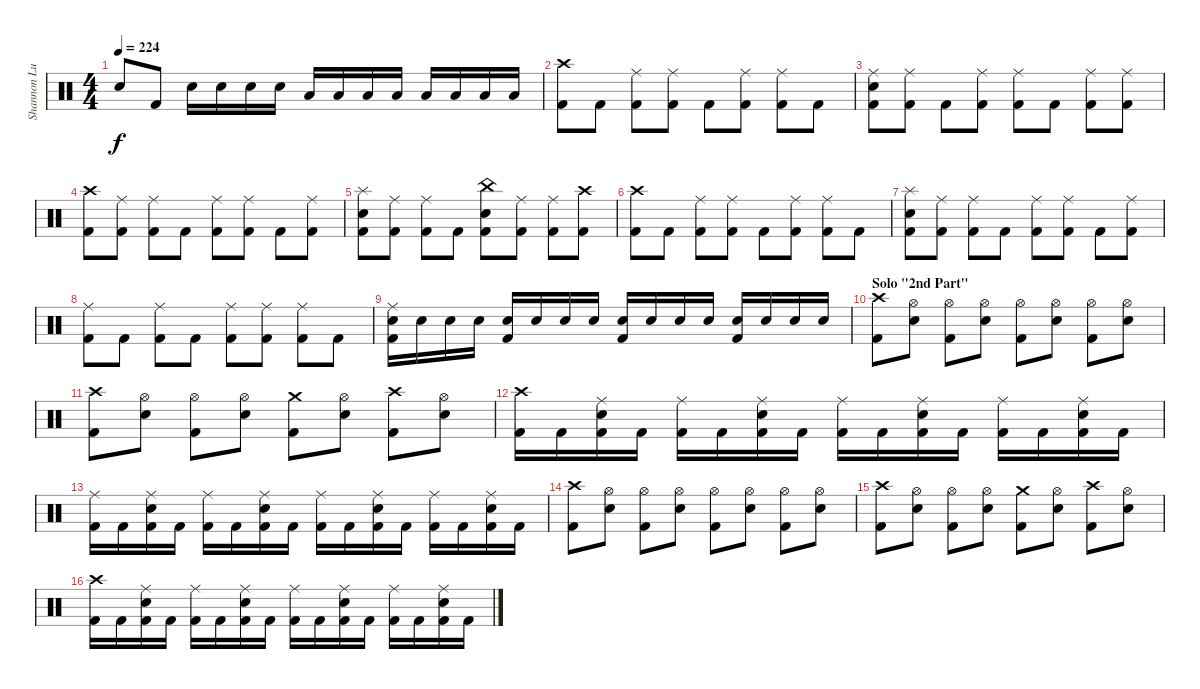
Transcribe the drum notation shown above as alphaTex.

\track ("Shannon Lucas (Drums)" "Shannon Lu") {instrument percussion}
\staff {score}
\articulation defaults
\ts (4 4)
\tempo 224
\clef neutral
\ks c "Snare (hit) 2".8{dy f} "Kick (hit) 2".8 "Snare (hit) 2".16 "Snare (hit) 2".16 "Snare (hit) 2".16 "Snare (hit) 2".16 "Low Tom (hit)".16 "Low Tom (hit)".16 "Low Tom (hit)".16 "Low Tom (hit)".16 "Low Floor Tom (hit)".16 "Low Floor Tom (hit)".16 "Low Floor Tom (hit)".16 "Low Floor Tom (hit)".16
|
("Crash high (hit)" "Kick (hit) 2").8 "Kick (hit) 2".8 ("Ride (middle)" "Kick (hit) 2").8 ("Ride (middle)" "Kick (hit) 2").8 "Kick (hit) 2".8 ("Ride (middle)" "Kick (hit) 2").8 ("Ride (middle)" "Kick (hit) 2").8 "Kick (hit) 2".8 |
("Ride (middle)" "Snare (hit) 2" "Kick (hit) 2").8 ("Ride (middle)" "Kick (hit) 2").8 "Kick (hit) 2".8 ("Ride (middle)" "Kick (hit) 2").8 ("Ride (middle)" "Kick (hit) 2").8 "Kick (hit) 2".8 ("Ride (middle)" "Kick (hit) 2").8 ("Ride (middle)" "Kick (hit) 2").8 |
("Crash high (hit)" "Kick (hit) 2").8 ("Ride (middle)" "Kick (hit) 2").8 ("Ride (middle)" "Kick (hit) 2").8 "Kick (hit) 2".8 ("Ride (middle)" "Kick (hit) 2").8 ("Ride (middle)" "Kick (hit) 2").8 "Kick (hit) 2".8 ("Ride (middle)" "Kick (hit) 2").8 |
("Splash (hit)" "Snare (hit) 2" "Kick (hit) 2").8 ("Ride (middle)" "Kick (hit) 2").8 ("Ride (middle)" "Kick (hit) 2").8 "Kick (hit) 2".8 ("China (hit)" "Snare (hit) 2" "Kick (hit) 2").8 ("Ride (middle)" "Kick (hit) 2").8 ("Ride (middle)" "Kick (hit) 2").8 ("Crash high (hit)" "Kick (hit) 2").8 |
("Crash high (hit)" "Kick (hit) 2").8 "Kick (hit) 2".8 ("Ride (middle)" "Kick (hit) 2").8 ("Ride (middle)" "Kick (hit) 2").8 "Kick (hit) 2".8 ("Ride (middle)" "Kick (hit) 2").8 ("Ride (middle)" "Kick (hit) 2").8 "Kick (hit) 2".8 |
("Splash (hit)" "Snare (hit) 2" "Kick (hit) 2").8 ("Ride (middle)" "Kick (hit) 2").8 ("Ride (middle)" "Kick (hit) 2").8 "Kick (hit) 2".8 ("Ride (middle)" "Kick (hit) 2").8 ("Ride (middle)" "Kick (hit) 2").8 "Kick (hit) 2".8 ("Ride (middle)" "Kick (hit) 2").8 |
("Ride (middle)" "Kick (hit) 2").8 "Kick (hit) 2".8 ("Ride (middle)" "Kick (hit) 2").8 "Kick (hit) 2".8 ("Ride (middle)" "Kick (hit) 2").8 ("Ride (middle)" "Kick (hit) 2").8 ("Ride (middle)" "Kick (hit) 2").8 "Kick (hit) 2".8 |
("Ride (middle)" "Kick (hit) 2" "Snare (hit) 2").16 "Snare (hit) 2".16 "Snare (hit) 2".16 "Snare (hit) 2".16 ("Kick (hit) 2" "Snare (hit) 2").16 "Snare (hit) 2".16 "Snare (hit) 2".16 "Snare (hit) 2".16 ("Kick (hit) 2" "Snare (hit) 2").16 "Snare (hit) 2".16 "Snare (hit) 2".16 "Snare (hit) 2".16 ("Kick (hit) 2" "Snare (hit) 2").16 "Snare (hit) 2".16 "Snare (hit) 2".16 "Snare (hit) 2".16 |
\section ("" "Solo \"2nd Part\"")
("Crash high (hit)" "Kick (hit) 2").8{balance 8} ("Hi-Hat (open)" "Snare (hit) 2").8 ("Hi-Hat (open)" "Kick (hit) 2").8 ("Hi-Hat (open)" "Snare (hit) 2").8 ("Hi-Hat (open)" "Kick (hit) 2").8 ("Hi-Hat (open)" "Snare (hit) 2").8 ("Hi-Hat (open)" "Kick (hit) 2").8 ("Hi-Hat (open)" "Snare (hit) 2").8 |
("Crash high (hit)" "Kick (hit) 2").8 ("Hi-Hat (open)" "Snare (hit) 2").8 ("Hi-Hat (open)" "Kick (hit) 2").8 ("Hi-Hat (open)" "Snare (hit) 2").8 ("Crash medium (hit)" "Kick (hit) 2").8 ("Hi-Hat (open)" "Snare (hit) 2").8 ("Crash high (hit)" "Kick (hit) 2").8 ("Hi-Hat (open)" "Snare (hit) 2").8 |
("Crash high (hit)" "Kick (hit) 2").16 "Kick (hit) 2".16 ("Ride (middle)" "Snare (hit) 2" "Kick (hit) 2").16 "Kick (hit) 2".16 ("Ride (middle)" "Kick (hit) 2").16 "Kick (hit) 2".16 ("Snare (hit) 2" "Ride (middle)" "Kick (hit) 2").16 "Kick (hit) 2".16 ("Ride (middle)" "Kick (hit) 2").16 "Kick (hit) 2".16 ("Snare (hit) 2" "Ride (middle)" "Kick (hit) 2").16 "Kick (hit) 2".16 ("Ride (middle)" "Kick (hit) 2").16 "Kick (hit) 2".16 ("Snare (hit) 2" "Ride (middle)" "Kick (hit) 2").16 "Kick (hit) 2".16 |
("Ride (middle)" "Kick (hit) 2").16 "Kick (hit) 2".16 ("Ride (middle)" "Snare (hit) 2" "Kick (hit) 2").16 "Kick (hit) 2".16 ("Ride (middle)" "Kick (hit) 2").16 "Kick (hit) 2".16 ("Snare (hit) 2" "Ride (middle)" "Kick (hit) 2").16 "Kick (hit) 2".16 ("Ride (middle)" "Kick (hit) 2").16 "Kick (hit) 2".16 ("Snare (hit) 2" "Ride (middle)" "Kick (hit) 2").16 "Kick (hit) 2".16 ("Ride (middle)" "Kick (hit) 2").16 "Kick (hit) 2".16 ("Snare (hit) 2" "Ride (middle)" "Kick (hit) 2").16 "Kick (hit) 2".16 |
("Crash high (hit)" "Kick (hit) 2").8{balance 8} ("Hi-Hat (open)" "Snare (hit) 2").8 ("Hi-Hat (open)" "Kick (hit) 2").8 ("Hi-Hat (open)" "Snare (hit) 2").8 ("Hi-Hat (open)" "Kick (hit) 2").8 ("Hi-Hat (open)" "Snare (hit) 2").8 ("Hi-Hat (open)" "Kick (hit) 2").8 ("Hi-Hat (open)" "Snare (hit) 2").8 |
("Crash high (hit)" "Kick (hit) 2").8 ("Hi-Hat (open)" "Snare (hit) 2").8 ("Hi-Hat (open)" "Kick (hit) 2").8 ("Hi-Hat (open)" "Snare (hit) 2").8 ("Crash medium (hit)" "Kick (hit) 2").8 ("Hi-Hat (open)" "Snare (hit) 2").8 ("Crash high (hit)" "Kick (hit) 2").8 ("Hi-Hat (open)" "Snare (hit) 2").8 |
("Crash high (hit)" "Kick (hit) 2").16 "Kick (hit) 2".16 ("Ride (middle)" "Snare (hit) 2" "Kick (hit) 2").16 "Kick (hit) 2".16 ("Ride (middle)" "Kick (hit) 2").16 "Kick (hit) 2".16 ("Snare (hit) 2" "Ride (middle)" "Kick (hit) 2").16 "Kick (hit) 2".16 ("Ride (middle)" "Kick (hit) 2").16 "Kick (hit) 2".16 ("Snare (hit) 2" "Ride (middle)" "Kick (hit) 2").16 "Kick (hit) 2".16 ("Ride (middle)" "Kick (hit) 2").16 "Kick (hit) 2".16 ("Snare (hit) 2" "Ride (middle)" "Kick (hit) 2").16 "Kick (hit) 2".16
